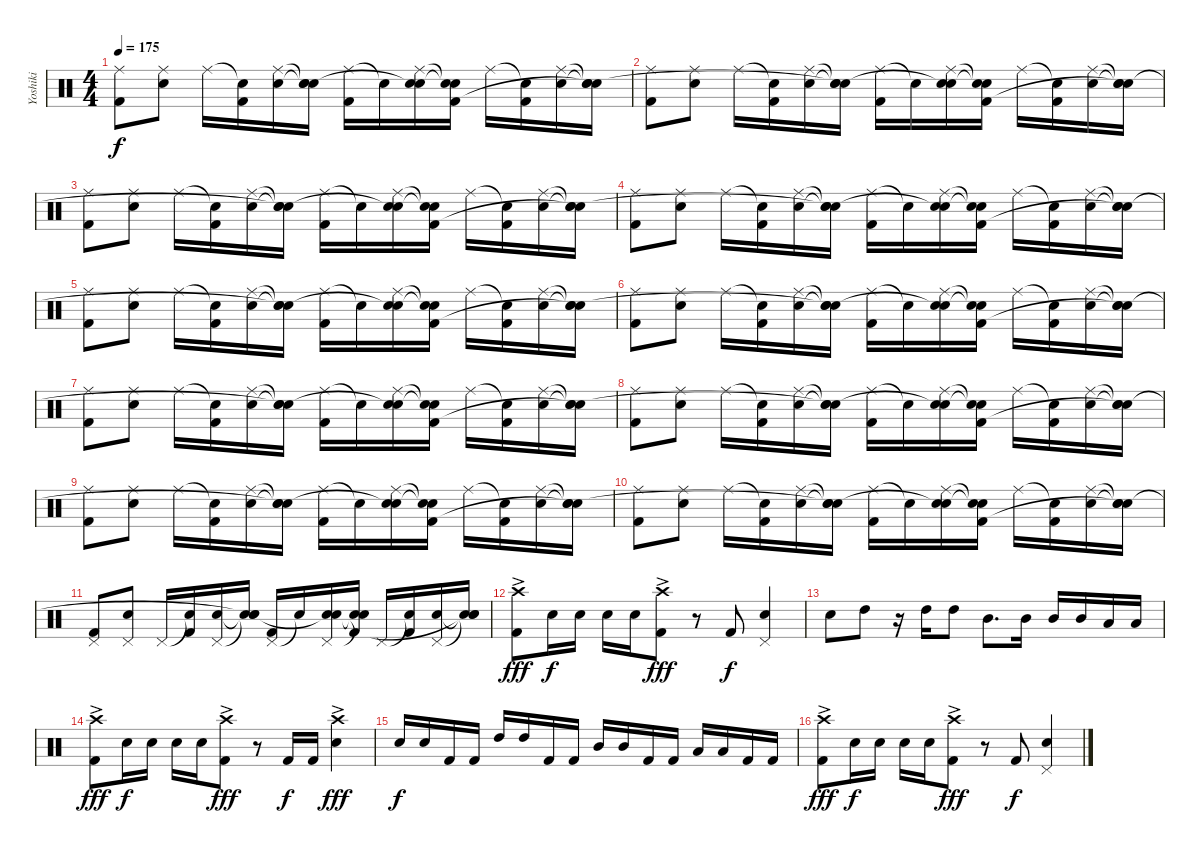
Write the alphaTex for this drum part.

\track ("Yoshiki" "Yoshiki") {instrument percussion}
\staff {score}
\articulation defaults
\ts (4 4)
\tempo 175
\clef neutral
\ks c
("Ride (middle)" "Kick (hit) 2").8{dy f} ("Ride (middle)" "Snare (hit) 2").8 "Ride (middle)".16 ("Snare (hit)"{t} "Kick (hit) 2").16 ("Ride (middle)" "Snare (hit) 2").16 ("Snare (hit)"{t} "Snare (hit)"{t} "Snare (hit)"{t}).16 ("Ride (middle)" "Kick (hit) 2").16 "Snare (hit)"{t}.16 ("Ride (middle)" "Snare (hit) 2" "Snare (hit)"{t}).16 ("Snare (hit)"{t} "Snare (hit)"{t} "Kick (hit) 2").16 "Ride (middle)".16 ("Snare (hit)"{t} "Kick (hit) 2").16 ("Ride (middle)" "Snare (hit) 2").16 ("Snare (hit)"{t} "Snare (hit)"{t} "Snare (hit)"{t}).16 |
("Ride (middle)" "Kick (hit) 2").8 ("Ride (middle)" "Snare (hit) 2").8 "Ride (middle)".16 ("Snare (hit)"{t} "Kick (hit) 2").16 ("Ride (middle)" "Snare (hit) 2").16 ("Snare (hit)"{t} "Snare (hit)"{t} "Snare (hit)"{t}).16 ("Ride (middle)" "Kick (hit) 2").16 "Snare (hit)"{t}.16 ("Ride (middle)" "Snare (hit) 2" "Snare (hit)"{t}).16 ("Snare (hit)"{t} "Snare (hit)"{t} "Kick (hit) 2").16 "Ride (middle)".16 ("Snare (hit)"{t} "Kick (hit) 2").16 ("Ride (middle)" "Snare (hit) 2").16 ("Snare (hit)"{t} "Snare (hit)"{t} "Snare (hit)"{t}).16 |
("Ride (middle)" "Kick (hit) 2").8 ("Ride (middle)" "Snare (hit) 2").8 "Ride (middle)".16 ("Snare (hit)"{t} "Kick (hit) 2").16 ("Ride (middle)" "Snare (hit) 2").16 ("Snare (hit)"{t} "Snare (hit)"{t} "Snare (hit)"{t}).16 ("Ride (middle)" "Kick (hit) 2").16 "Snare (hit)"{t}.16 ("Ride (middle)" "Snare (hit) 2" "Snare (hit)"{t}).16 ("Snare (hit)"{t} "Snare (hit)"{t} "Kick (hit) 2").16 "Ride (middle)".16 ("Snare (hit)"{t} "Kick (hit) 2").16 ("Ride (middle)" "Snare (hit) 2").16 ("Snare (hit)"{t} "Snare (hit)"{t} "Snare (hit)"{t}).16 |
("Ride (middle)" "Kick (hit) 2").8 ("Ride (middle)" "Snare (hit) 2").8 "Ride (middle)".16 ("Snare (hit)"{t} "Kick (hit) 2").16 ("Ride (middle)" "Snare (hit) 2").16 ("Snare (hit)"{t} "Snare (hit)"{t} "Snare (hit)"{t}).16 ("Ride (middle)" "Kick (hit) 2").16 "Snare (hit)"{t}.16 ("Ride (middle)" "Snare (hit) 2" "Snare (hit)"{t}).16 ("Snare (hit)"{t} "Snare (hit)"{t} "Kick (hit) 2").16 "Ride (middle)".16 ("Snare (hit)"{t} "Kick (hit) 2").16 ("Ride (middle)" "Snare (hit) 2").16 ("Snare (hit)"{t} "Snare (hit)"{t} "Snare (hit)"{t}).16 |
("Ride (middle)" "Kick (hit) 2").8 ("Ride (middle)" "Snare (hit) 2").8 "Ride (middle)".16 ("Snare (hit)"{t} "Kick (hit) 2").16 ("Ride (middle)" "Snare (hit) 2").16 ("Snare (hit)"{t} "Snare (hit)"{t} "Snare (hit)"{t}).16 ("Ride (middle)" "Kick (hit) 2").16 "Snare (hit)"{t}.16 ("Ride (middle)" "Snare (hit) 2" "Snare (hit)"{t}).16 ("Snare (hit)"{t} "Snare (hit)"{t} "Kick (hit) 2").16 "Ride (middle)".16 ("Snare (hit)"{t} "Kick (hit) 2").16 ("Ride (middle)" "Snare (hit) 2").16 ("Snare (hit)"{t} "Snare (hit)"{t} "Snare (hit)"{t}).16 |
("Ride (middle)" "Kick (hit) 2").8 ("Ride (middle)" "Snare (hit) 2").8 "Ride (middle)".16 ("Snare (hit)"{t} "Kick (hit) 2").16 ("Ride (middle)" "Snare (hit) 2").16 ("Snare (hit)"{t} "Snare (hit)"{t} "Snare (hit)"{t}).16 ("Ride (middle)" "Kick (hit) 2").16 "Snare (hit)"{t}.16 ("Ride (middle)" "Snare (hit) 2" "Snare (hit)"{t}).16 ("Snare (hit)"{t} "Snare (hit)"{t} "Kick (hit) 2").16 "Ride (middle)".16 ("Snare (hit)"{t} "Kick (hit) 2").16 ("Ride (middle)" "Snare (hit) 2").16 ("Snare (hit)"{t} "Snare (hit)"{t} "Snare (hit)"{t}).16 |
("Ride (middle)" "Kick (hit) 2").8 ("Ride (middle)" "Snare (hit) 2").8 "Ride (middle)".16 ("Snare (hit)"{t} "Kick (hit) 2").16 ("Ride (middle)" "Snare (hit) 2").16 ("Snare (hit)"{t} "Snare (hit)"{t} "Snare (hit)"{t}).16 ("Ride (middle)" "Kick (hit) 2").16 "Snare (hit)"{t}.16 ("Ride (middle)" "Snare (hit) 2" "Snare (hit)"{t}).16 ("Snare (hit)"{t} "Snare (hit)"{t} "Kick (hit) 2").16 "Ride (middle)".16 ("Snare (hit)"{t} "Kick (hit) 2").16 ("Ride (middle)" "Snare (hit) 2").16 ("Snare (hit)"{t} "Snare (hit)"{t} "Snare (hit)"{t}).16 |
("Ride (middle)" "Kick (hit) 2").8 ("Ride (middle)" "Snare (hit) 2").8 "Ride (middle)".16 ("Snare (hit)"{t} "Kick (hit) 2").16 ("Ride (middle)" "Snare (hit) 2").16 ("Snare (hit)"{t} "Snare (hit)"{t} "Snare (hit)"{t}).16 ("Ride (middle)" "Kick (hit) 2").16 "Snare (hit)"{t}.16 ("Ride (middle)" "Snare (hit) 2" "Snare (hit)"{t}).16 ("Snare (hit)"{t} "Snare (hit)"{t} "Kick (hit) 2").16 "Ride (middle)".16 ("Snare (hit)"{t} "Kick (hit) 2").16 ("Ride (middle)" "Snare (hit) 2").16 ("Snare (hit)"{t} "Snare (hit)"{t} "Snare (hit)"{t}).16 |
("Ride (middle)" "Kick (hit) 2").8 ("Ride (middle)" "Snare (hit) 2").8 "Ride (middle)".16 ("Snare (hit)"{t} "Kick (hit) 2").16 ("Ride (middle)" "Snare (hit) 2").16 ("Snare (hit)"{t} "Snare (hit)"{t} "Snare (hit)"{t}).16 ("Ride (middle)" "Kick (hit) 2").16 "Snare (hit)"{t}.16 ("Ride (middle)" "Snare (hit) 2" "Snare (hit)"{t}).16 ("Snare (hit)"{t} "Snare (hit)"{t} "Kick (hit) 2").16 "Ride (middle)".16 ("Snare (hit)"{t} "Kick (hit) 2").16 ("Ride (middle)" "Snare (hit) 2").16 ("Snare (hit)"{t} "Snare (hit)"{t} "Snare (hit)"{t}).16 |
("Ride (middle)" "Kick (hit) 2").8 ("Ride (middle)" "Snare (hit) 2").8 "Ride (middle)".16 ("Snare (hit)"{t} "Kick (hit) 2").16 ("Ride (middle)" "Snare (hit) 2").16 ("Snare (hit)"{t} "Snare (hit)"{t} "Snare (hit)"{t}).16 ("Ride (middle)" "Kick (hit) 2").16 "Snare (hit)"{t}.16 ("Ride (middle)" "Snare (hit) 2" "Snare (hit)"{t}).16 ("Snare (hit)"{t} "Snare (hit)"{t} "Kick (hit) 2").16 "Ride (middle)".16 ("Snare (hit)"{t} "Kick (hit) 2").16 ("Ride (middle)" "Snare (hit) 2").16 ("Snare (hit)"{t} "Snare (hit)"{t} "Snare (hit)"{t}).16 |
("Pedal Hi-Hat (hit)" "Kick (hit) 2").8 ("Pedal Hi-Hat (hit)" "Snare (hit) 2").8 "Pedal Hi-Hat (hit)".16 ("Snare (hit)"{t} "Kick (hit) 2").16 ("Pedal Hi-Hat (hit)" "Snare (hit) 2").16 ("Snare (hit)"{t} "Snare (hit)"{t} "Snare (hit)"{t}).16 ("Pedal Hi-Hat (hit)" "Kick (hit) 2").16 "Snare (hit)"{t}.16 ("Pedal Hi-Hat (hit)" "Snare (hit) 2" "Snare (hit)"{t}).16 ("Snare (hit)"{t} "Snare (hit)"{t} "Kick (hit) 2").16 "Pedal Hi-Hat (hit)".16 ("Snare (hit)"{t} "Kick (hit) 2").16 ("Pedal Hi-Hat (hit)" "Snare (hit) 2").16 ("Snare (hit)"{t} "Snare (hit)"{t} "Snare (hit)"{t}).16 |
("Crash high (hit)"{ac} "Kick (hit) 2"{ac}).8{dy fff} "Snare (hit) 2".16{dy f} "Snare (hit) 2".16 "Snare (hit) 2".16 "Snare (hit) 2".16 ("Crash high (hit)"{ac} "Kick (hit) 2"{ac}).8{dy fff} r.8 "Kick (hit) 2".8{dy f} ("Pedal Hi-Hat (hit)" "Snare (hit) 2").4 |
"Snare (hit) 2".8 "High Tom (hit)".8 r.16 "High Tom (hit)".16 "High Tom (hit)".8 "Mid Tom (hit)".8{d} "Mid Tom (hit)".16 "Mid Tom (hit)".16 "Mid Tom (hit)".16 "Low Tom (hit)".16 "Low Tom (hit)".16 |
("Crash high (hit)"{ac} "Kick (hit) 2"{ac}).8{dy fff} "Snare (hit) 2".16{dy f} "Snare (hit) 2".16 "Snare (hit) 2".16 "Snare (hit) 2".16 ("Crash high (hit)"{ac} "Kick (hit) 2").8{dy fff} r.8 "Kick (hit) 2".16{dy f} "Kick (hit) 2".16 ("Crash high (hit)"{ac} "Snare (hit) 2"{ac}).4{dy fff} |
"Snare (hit) 2".16{dy f} "Snare (hit) 2".16 "Kick (hit) 2".16 "Kick (hit) 2".16 "High Tom (hit)".16 "High Tom (hit)".16 "Kick (hit) 2".16 "Kick (hit) 2".16 "Mid Tom (hit)".16 "Mid Tom (hit)".16 "Kick (hit) 2".16 "Kick (hit) 2".16 "Low Tom (hit)".16 "Low Tom (hit)".16 "Kick (hit) 2".16 "Kick (hit) 2".16 |
("Crash high (hit)"{ac} "Kick (hit) 2"{ac}).8{dy fff} "Snare (hit) 2".16{dy f} "Snare (hit) 2".16 "Snare (hit) 2".16 "Snare (hit) 2".16 ("Crash high (hit)" "Kick (hit) 2"{ac}).8{dy fff} r.8 "Kick (hit) 2".8{dy f} ("Pedal Hi-Hat (hit)" "Snare (hit) 2").4
